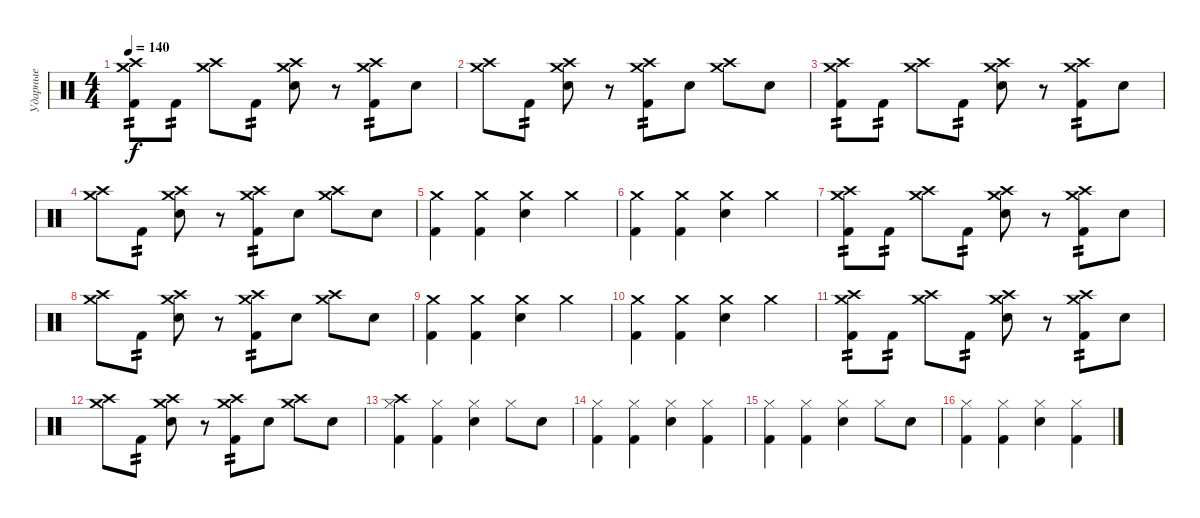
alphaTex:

\track ("Ударные" "Ударные") {instrument percussion}
\staff {score}
\articulation defaults
\ts (4 4)
\tempo 140
\clef neutral
\ks c
("Crash high (hit)" "Crash medium (hit)" "Kick (hit) 2").8{tp 2 dy f} "Kick (hit) 2".8{tp 2} ("Crash high (hit)" "Crash medium (hit)").8 "Kick (hit) 2".8{tp 2} ("Crash high (hit)" "Crash medium (hit)" "Electric Snare (hit)").8 r.8 ("Crash high (hit)" "Crash medium (hit)" "Kick (hit) 2").8{tp 2} "Electric Snare (hit)".8 |
("Crash high (hit)" "Crash medium (hit)").8 "Kick (hit) 2".8{tp 2} ("Crash high (hit)" "Crash medium (hit)" "Electric Snare (hit)").8 r.8 ("Crash high (hit)" "Crash medium (hit)" "Kick (hit) 2").8{tp 2} "Electric Snare (hit)".8 ("Crash high (hit)" "Crash medium (hit)").8 "Electric Snare (hit)".8 |
("Crash high (hit)" "Crash medium (hit)" "Kick (hit) 2").8{tp 2} "Kick (hit) 2".8{tp 2} ("Crash high (hit)" "Crash medium (hit)").8 "Kick (hit) 2".8{tp 2} ("Crash high (hit)" "Crash medium (hit)" "Electric Snare (hit)").8 r.8 ("Crash high (hit)" "Crash medium (hit)" "Kick (hit) 2").8{tp 2} "Electric Snare (hit)".8 |
("Crash high (hit)" "Crash medium (hit)").8 "Kick (hit) 2".8{tp 2} ("Crash high (hit)" "Crash medium (hit)" "Electric Snare (hit)").8 r.8 ("Crash high (hit)" "Crash medium (hit)" "Kick (hit) 2").8{tp 2} "Electric Snare (hit)".8 ("Crash high (hit)" "Crash medium (hit)").8 "Electric Snare (hit)".8 |
("Crash medium (hit)" "Kick (hit) 2").4 ("Crash medium (hit)" "Kick (hit) 2").4 ("Crash medium (hit)" "Electric Snare (hit)").4 "Crash medium (hit)".4 |
("Crash medium (hit)" "Kick (hit) 2").4 ("Crash medium (hit)" "Kick (hit) 2").4 ("Crash medium (hit)" "Electric Snare (hit)").4 "Crash medium (hit)".4 |
("Crash high (hit)" "Crash medium (hit)" "Kick (hit) 2").8{tp 2} "Kick (hit) 2".8{tp 2} ("Crash high (hit)" "Crash medium (hit)").8 "Kick (hit) 2".8{tp 2} ("Crash high (hit)" "Crash medium (hit)" "Electric Snare (hit)").8 r.8 ("Crash high (hit)" "Crash medium (hit)" "Kick (hit) 2").8{tp 2} "Electric Snare (hit)".8 |
("Crash high (hit)" "Crash medium (hit)").8 "Kick (hit) 2".8{tp 2} ("Crash high (hit)" "Crash medium (hit)" "Electric Snare (hit)").8 r.8 ("Crash high (hit)" "Crash medium (hit)" "Kick (hit) 2").8{tp 2} "Electric Snare (hit)".8 ("Crash high (hit)" "Crash medium (hit)").8 "Electric Snare (hit)".8 |
("Crash medium (hit)" "Kick (hit) 2").4 ("Crash medium (hit)" "Kick (hit) 2").4 ("Crash medium (hit)" "Electric Snare (hit)").4 "Crash medium (hit)".4 |
("Crash medium (hit)" "Kick (hit) 2").4 ("Crash medium (hit)" "Kick (hit) 2").4 ("Crash medium (hit)" "Electric Snare (hit)").4 "Crash medium (hit)".4 |
("Crash high (hit)" "Crash medium (hit)" "Kick (hit) 2").8{tp 2} "Kick (hit) 2".8{tp 2} ("Crash high (hit)" "Crash medium (hit)").8 "Kick (hit) 2".8{tp 2} ("Crash high (hit)" "Crash medium (hit)" "Electric Snare (hit)").8 r.8 ("Crash high (hit)" "Crash medium (hit)" "Kick (hit) 2").8{tp 2} "Electric Snare (hit)".8 |
("Crash high (hit)" "Crash medium (hit)").8 "Kick (hit) 2".8{tp 2} ("Crash high (hit)" "Crash medium (hit)" "Electric Snare (hit)").8 r.8 ("Crash high (hit)" "Crash medium (hit)" "Kick (hit) 2").8{tp 2} "Electric Snare (hit)".8 ("Crash high (hit)" "Crash medium (hit)").8 "Electric Snare (hit)".8 |
("Hi-Hat (closed)" "Crash high (hit)" "Kick (hit) 2").4 ("Hi-Hat (closed)" "Kick (hit) 2").4 ("Hi-Hat (closed)" "Electric Snare (hit)").4 "Hi-Hat (closed)".8 "Electric Snare (hit)".8 |
("Hi-Hat (closed)" "Kick (hit) 2").4 ("Hi-Hat (closed)" "Kick (hit) 2").4 ("Hi-Hat (closed)" "Electric Snare (hit)").4 ("Hi-Hat (closed)" "Kick (hit) 2").4 |
("Hi-Hat (closed)" "Kick (hit) 2").4 ("Hi-Hat (closed)" "Kick (hit) 2").4 ("Hi-Hat (closed)" "Electric Snare (hit)").4 "Hi-Hat (closed)".8 "Electric Snare (hit)".8 |
("Hi-Hat (closed)" "Kick (hit) 2").4 ("Hi-Hat (closed)" "Kick (hit) 2").4 ("Hi-Hat (closed)" "Electric Snare (hit)").4 ("Hi-Hat (closed)" "Kick (hit) 2").4
